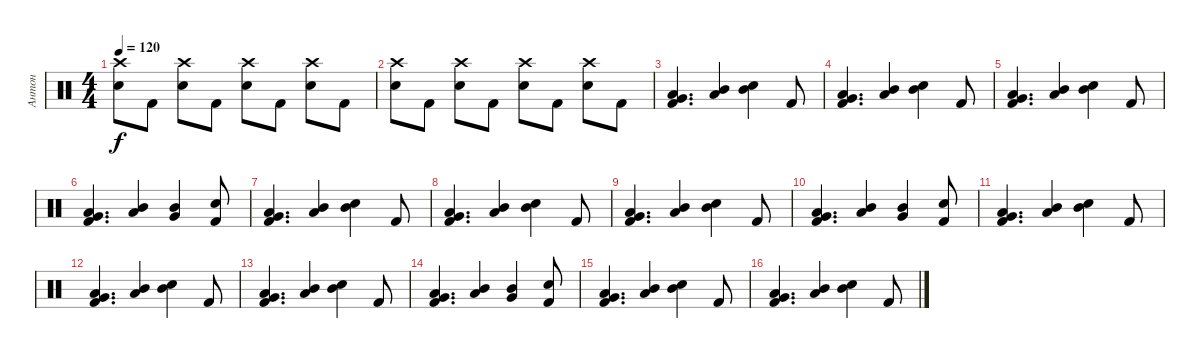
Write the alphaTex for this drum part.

\track ("Антон" "Антон") {instrument percussion}
\staff {score}
\articulation defaults
\ts (4 4)
\tempo 120
\clef neutral
\ks c
("Crash high (hit)" "Electric Snare (hit)").8{dy f} "Kick (hit) 2".8 ("Crash high (hit)" "Electric Snare (hit)").8 "Kick (hit) 2".8 ("Crash high (hit)" "Electric Snare (hit)").8 "Kick (hit) 2".8 ("Crash high (hit)" "Electric Snare (hit)").8 "Kick (hit) 2".8 |
("Crash high (hit)" "Electric Snare (hit)").8 "Kick (hit) 2".8 ("Crash high (hit)" "Electric Snare (hit)").8 "Kick (hit) 2".8 ("Crash high (hit)" "Electric Snare (hit)").8 "Kick (hit) 2".8 ("Crash high (hit)" "Electric Snare (hit)").8 "Kick (hit) 2".8 |
("Very Low Tom (hit)" "Low Tom (hit)" "Kick (hit) 2").4{d} ("Low Tom (hit)" "Mid Tom (hit)").4 ("Mid Tom (hit)" "Electric Snare (hit)").4 "Kick (hit) 2".8 |
("Very Low Tom (hit)" "Low Tom (hit)" "Kick (hit) 2").4{d} ("Low Tom (hit)" "Mid Tom (hit)").4 ("Mid Tom (hit)" "Electric Snare (hit)").4 "Kick (hit) 2".8 |
("Very Low Tom (hit)" "Low Tom (hit)" "Kick (hit) 2").4{d} ("Low Tom (hit)" "Mid Tom (hit)").4 ("Mid Tom (hit)" "Electric Snare (hit)").4 "Kick (hit) 2".8 |
("Very Low Tom (hit)" "Low Tom (hit)" "Kick (hit) 2").4{d} ("Low Tom (hit)" "Mid Tom (hit)").4 ("Mid Tom (hit)" "Very Low Tom (hit)").4 ("Electric Snare (hit)" "Kick (hit) 2").8 |
("Very Low Tom (hit)" "Low Tom (hit)" "Kick (hit) 2").4{d} ("Low Tom (hit)" "Mid Tom (hit)").4 ("Mid Tom (hit)" "Electric Snare (hit)").4 "Kick (hit) 2".8 |
("Very Low Tom (hit)" "Low Tom (hit)" "Kick (hit) 2").4{d} ("Low Tom (hit)" "Mid Tom (hit)").4 ("Mid Tom (hit)" "Electric Snare (hit)").4 "Kick (hit) 2".8 |
("Very Low Tom (hit)" "Low Tom (hit)" "Kick (hit) 2").4{d} ("Low Tom (hit)" "Mid Tom (hit)").4 ("Mid Tom (hit)" "Electric Snare (hit)").4 "Kick (hit) 2".8 |
("Very Low Tom (hit)" "Low Tom (hit)" "Kick (hit) 2").4{d} ("Low Tom (hit)" "Mid Tom (hit)").4 ("Mid Tom (hit)" "Very Low Tom (hit)").4 ("Electric Snare (hit)" "Kick (hit) 2").8 |
("Very Low Tom (hit)" "Low Tom (hit)" "Kick (hit) 2").4{d} ("Low Tom (hit)" "Mid Tom (hit)").4 ("Mid Tom (hit)" "Electric Snare (hit)").4 "Kick (hit) 2".8 |
("Very Low Tom (hit)" "Low Tom (hit)" "Kick (hit) 2").4{d} ("Low Tom (hit)" "Mid Tom (hit)").4 ("Mid Tom (hit)" "Electric Snare (hit)").4 "Kick (hit) 2".8 |
("Very Low Tom (hit)" "Low Tom (hit)" "Kick (hit) 2").4{d} ("Low Tom (hit)" "Mid Tom (hit)").4 ("Mid Tom (hit)" "Electric Snare (hit)").4 "Kick (hit) 2".8 |
("Very Low Tom (hit)" "Low Tom (hit)" "Kick (hit) 2").4{d} ("Low Tom (hit)" "Mid Tom (hit)").4 ("Mid Tom (hit)" "Very Low Tom (hit)").4 ("Electric Snare (hit)" "Kick (hit) 2").8 |
("Very Low Tom (hit)" "Low Tom (hit)" "Kick (hit) 2").4{d} ("Low Tom (hit)" "Mid Tom (hit)").4 ("Mid Tom (hit)" "Electric Snare (hit)").4 "Kick (hit) 2".8 |
("Very Low Tom (hit)" "Low Tom (hit)" "Kick (hit) 2").4{d} ("Low Tom (hit)" "Mid Tom (hit)").4 ("Mid Tom (hit)" "Electric Snare (hit)").4 "Kick (hit) 2".8
